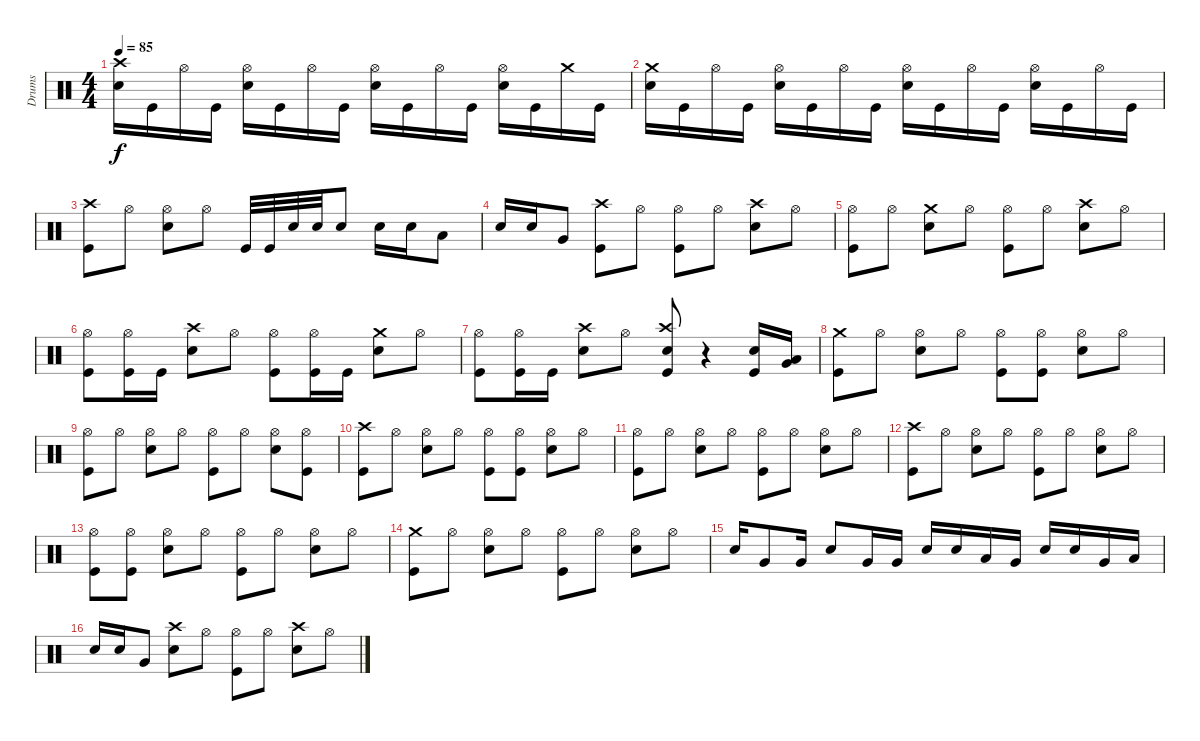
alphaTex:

\track ("Drums" "Drums") {instrument percussion}
\staff {score}
\articulation defaults
\ts (4 4)
\tempo 85
\clef neutral
\ks c
("Snare (hit) 2" "Crash high (hit)").16{dy f} "Kick (hit)".16 "Hi-Hat (open)".16 "Kick (hit)".16 ("Snare (hit) 2" "Hi-Hat (open)").16 "Kick (hit)".16 "Hi-Hat (open)".16 "Kick (hit)".16 ("Snare (hit) 2" "Hi-Hat (open)").16 "Kick (hit)".16 "Hi-Hat (open)".16 "Kick (hit)".16 ("Snare (hit) 2" "Hi-Hat (open)").16 "Kick (hit)".16 "Crash medium (hit)".16 "Kick (hit)".16 |
("Snare (hit) 2" "Crash medium (hit)").16 "Kick (hit)".16 "Hi-Hat (open)".16 "Kick (hit)".16 ("Snare (hit) 2" "Hi-Hat (open)").16 "Kick (hit)".16 "Hi-Hat (open)".16 "Kick (hit)".16 ("Snare (hit) 2" "Hi-Hat (open)").16 "Kick (hit)".16 "Hi-Hat (open)".16 "Kick (hit)".16 ("Snare (hit) 2" "Hi-Hat (open)").16 "Kick (hit)".16 "Hi-Hat (open)".16 "Kick (hit)".16 |
("Crash high (hit)" "Kick (hit)").8 "Hi-Hat (open)".8 ("Snare (hit) 2" "Hi-Hat (open)").8 "Hi-Hat (open)".8 "Kick (hit)".32 "Kick (hit)".32 "Snare (hit) 2".32 "Snare (hit) 2".32 "Snare (hit) 2".8 "Snare (hit) 2".16 "Snare (hit) 2".16 "Low Tom (hit)".8 |
"Snare (hit) 2".16 "Snare (hit) 2".16 "Very Low Tom (hit)".8 ("Crash high (hit)" "Kick (hit)").8 "Hi-Hat (open)".8 ("Kick (hit)" "Hi-Hat (open)").8 "Hi-Hat (open)".8 ("Crash high (hit)" "Snare (hit) 2").8 "Hi-Hat (open)".8 |
("Kick (hit)" "Hi-Hat (open)").8 "Hi-Hat (open)".8 ("Snare (hit) 2" "Crash medium (hit)").8 "Hi-Hat (open)".8 ("Kick (hit)" "Hi-Hat (open)").8 "Hi-Hat (open)".8 ("Crash high (hit)" "Snare (hit) 2").8 "Hi-Hat (open)".8 |
("Kick (hit)" "Hi-Hat (open)").8 ("Hi-Hat (open)" "Kick (hit)").16 "Kick (hit)".16 ("Crash high (hit)" "Snare (hit) 2").8 "Hi-Hat (open)".8 ("Kick (hit)" "Hi-Hat (open)").8 ("Hi-Hat (open)" "Kick (hit)").16 "Kick (hit)".16 ("Snare (hit) 2" "Crash medium (hit)").8 "Hi-Hat (open)".8 |
("Kick (hit)" "Hi-Hat (open)").8 ("Hi-Hat (open)" "Kick (hit)").16 "Kick (hit)".16 ("Crash high (hit)" "Snare (hit) 2").8 "Hi-Hat (open)".8 ("Snare (hit) 2" "Crash high (hit)" "Kick (hit)").8 r.4 ("Kick (hit)" "Snare (hit) 2").16 ("Very Low Tom (hit)" "Low Tom (hit)").16 |
("Crash medium (hit)" "Kick (hit)").8 "Hi-Hat (open)".8 ("Hi-Hat (open)" "Snare (hit) 2").8 "Hi-Hat (open)".8 ("Kick (hit)" "Hi-Hat (open)").8 ("Kick (hit)" "Hi-Hat (open)").8 ("Snare (hit) 2" "Hi-Hat (open)").8 "Hi-Hat (open)".8 |
("Kick (hit)" "Hi-Hat (open)").8 "Hi-Hat (open)".8 ("Snare (hit) 2" "Hi-Hat (open)").8 "Hi-Hat (open)".8 ("Kick (hit)" "Hi-Hat (open)").8 "Hi-Hat (open)".8 ("Snare (hit) 2" "Hi-Hat (open)").8 ("Kick (hit)" "Hi-Hat (open)").8 |
("Crash high (hit)" "Kick (hit)").8 "Hi-Hat (open)".8 ("Snare (hit) 2" "Hi-Hat (open)").8 "Hi-Hat (open)".8 ("Hi-Hat (open)" "Kick (hit)").8 ("Hi-Hat (open)" "Kick (hit)").8 ("Hi-Hat (open)" "Snare (hit) 2").8 "Hi-Hat (open)".8 |
("Kick (hit)" "Hi-Hat (open)").8 "Hi-Hat (open)".8 ("Hi-Hat (open)" "Snare (hit) 2").8 "Hi-Hat (open)".8 ("Hi-Hat (open)" "Kick (hit)").8 "Hi-Hat (open)".8 ("Snare (hit) 2" "Hi-Hat (open)").8 "Hi-Hat (open)".8 |
("Crash high (hit)" "Kick (hit)").8 "Hi-Hat (open)".8 ("Snare (hit) 2" "Hi-Hat (open)").8 "Hi-Hat (open)".8 ("Hi-Hat (open)" "Kick (hit)").8 "Hi-Hat (open)".8 ("Snare (hit) 2" "Hi-Hat (open)").8 "Hi-Hat (open)".8 |
("Kick (hit)" "Hi-Hat (open)").8 ("Kick (hit)" "Hi-Hat (open)").8 ("Snare (hit) 2" "Hi-Hat (open)").8 "Hi-Hat (open)".8 ("Hi-Hat (open)" "Kick (hit)").8 "Hi-Hat (open)".8 ("Hi-Hat (open)" "Snare (hit) 2").8 "Hi-Hat (open)".8 |
("Crash medium (hit)" "Kick (hit)").8 "Hi-Hat (open)".8 ("Snare (hit) 2" "Hi-Hat (open)").8 "Hi-Hat (open)".8 ("Kick (hit)" "Hi-Hat (open)").8 "Hi-Hat (open)".8 ("Snare (hit) 2" "Hi-Hat (open)").8 "Hi-Hat (open)".8 |
"Snare (hit) 2".16 "Very Low Tom (hit)".8 "Very Low Tom (hit)".16 "Snare (hit) 2".8 "Very Low Tom (hit)".16 "Very Low Tom (hit)".16 "Snare (hit) 2".16 "Snare (hit) 2".16 "Low Tom (hit)".16 "Very Low Tom (hit)".16 "Snare (hit) 2".16 "Snare (hit) 2".16 "Very Low Tom (hit)".16 "Low Floor Tom (hit)".16 |
"Snare (hit) 2".16 "Snare (hit) 2".16 "Very Low Tom (hit)".8 ("Crash high (hit)" "Snare (hit) 2").8 "Hi-Hat (open)".8 ("Kick (hit)" "Hi-Hat (open)").8 "Hi-Hat (open)".8 ("Snare (hit) 2" "Crash high (hit)").8 "Hi-Hat (open)".8
